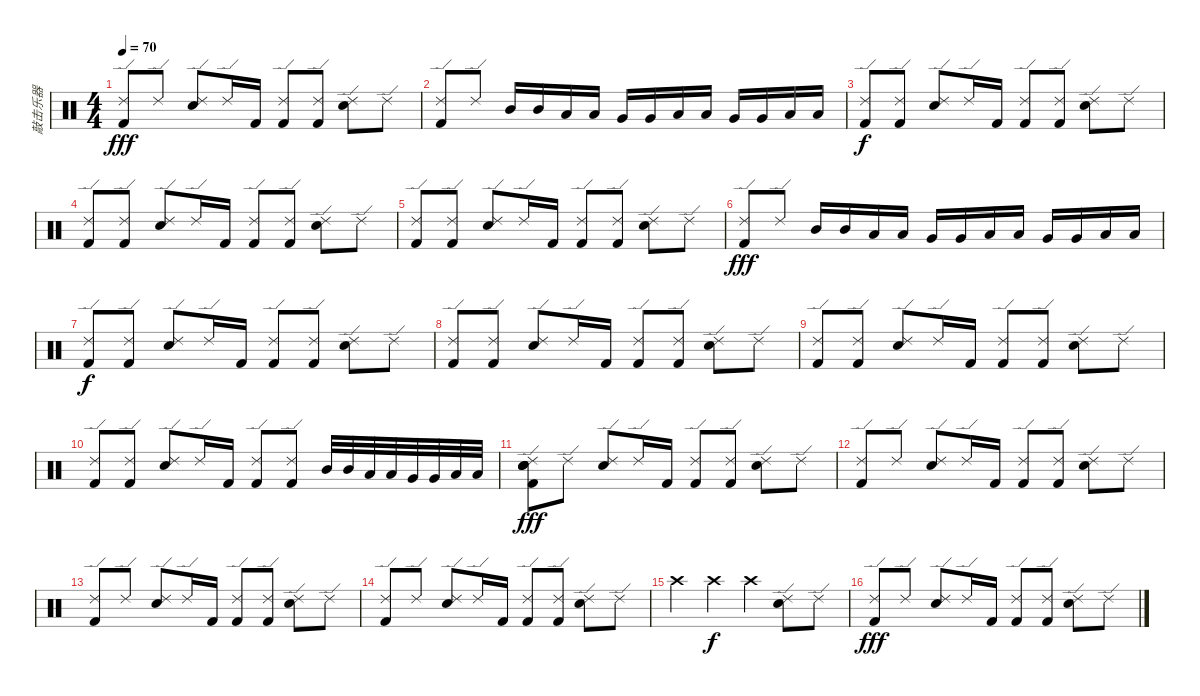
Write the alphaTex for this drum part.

\track ("敲击乐器" "敲击乐器") {instrument percussion}
\staff {score}
\articulation defaults
\ts (4 4)
\tempo 70
\clef neutral
\ks c
("Ride (edge) 2" "Kick (hit) 2").8{dy fff} "Ride (edge) 2".8 ("Ride (edge) 2" "Snare (hit) 2").8 "Ride (edge) 2".16 "Kick (hit) 2".16 ("Ride (edge) 2" "Kick (hit) 2").8 ("Ride (edge) 2" "Kick (hit) 2").8 ("Ride (edge) 2" "Snare (hit) 2").8 "Ride (edge) 2".8 |
("Ride (edge) 2" "Kick (hit) 2").8 "Ride (edge) 2".8 "Mid Tom (hit)".16 "Mid Tom (hit)".16 "Low Tom (hit)".16 "Low Tom (hit)".16 "Very Low Tom (hit)".16 "Very Low Tom (hit)".16 "Low Tom (hit)".16 "Low Tom (hit)".16 "Very Low Tom (hit)".16 "Very Low Tom (hit)".16 "Low Floor Tom (hit)".16 "Low Floor Tom (hit)".16 |
("Ride (edge) 2" "Kick (hit) 2").8{dy f} ("Ride (edge) 2" "Kick (hit) 2").8 ("Ride (edge) 2" "Snare (hit) 2").8 "Ride (edge) 2".16 "Kick (hit) 2".16 ("Ride (edge) 2" "Kick (hit) 2").8 ("Ride (edge) 2" "Kick (hit) 2").8 ("Ride (edge) 2" "Snare (hit) 2").8 "Ride (edge) 2".8 |
("Ride (edge) 2" "Kick (hit) 2").8 ("Ride (edge) 2" "Kick (hit) 2").8 ("Ride (edge) 2" "Snare (hit) 2").8 "Ride (edge) 2".16 "Kick (hit) 2".16 ("Ride (edge) 2" "Kick (hit) 2").8 ("Ride (edge) 2" "Kick (hit) 2").8 ("Ride (edge) 2" "Snare (hit) 2").8 "Ride (edge) 2".8 |
("Ride (edge) 2" "Kick (hit) 2").8 ("Ride (edge) 2" "Kick (hit) 2").8 ("Ride (edge) 2" "Snare (hit) 2").8 "Ride (edge) 2".16 "Kick (hit) 2".16 ("Ride (edge) 2" "Kick (hit) 2").8 ("Ride (edge) 2" "Kick (hit) 2").8 ("Ride (edge) 2" "Snare (hit) 2").8 "Ride (edge) 2".8 |
("Ride (edge) 2" "Kick (hit) 2").8{dy fff} "Ride (edge) 2".8 "Mid Tom (hit)".16 "Mid Tom (hit)".16 "Low Tom (hit)".16 "Low Tom (hit)".16 "Very Low Tom (hit)".16 "Very Low Tom (hit)".16 "Low Tom (hit)".16 "Low Tom (hit)".16 "Very Low Tom (hit)".16 "Very Low Tom (hit)".16 "Low Floor Tom (hit)".16 "Low Floor Tom (hit)".16 |
("Ride (edge) 2" "Kick (hit) 2").8{dy f} ("Ride (edge) 2" "Kick (hit) 2").8 ("Ride (edge) 2" "Snare (hit) 2").8 "Ride (edge) 2".16 "Kick (hit) 2".16 ("Ride (edge) 2" "Kick (hit) 2").8 ("Ride (edge) 2" "Kick (hit) 2").8 ("Ride (edge) 2" "Snare (hit) 2").8 "Ride (edge) 2".8 |
("Ride (edge) 2" "Kick (hit) 2").8 ("Ride (edge) 2" "Kick (hit) 2").8 ("Ride (edge) 2" "Snare (hit) 2").8 "Ride (edge) 2".16 "Kick (hit) 2".16 ("Ride (edge) 2" "Kick (hit) 2").8 ("Ride (edge) 2" "Kick (hit) 2").8 ("Ride (edge) 2" "Snare (hit) 2").8 "Ride (edge) 2".8 |
("Ride (edge) 2" "Kick (hit) 2").8 ("Ride (edge) 2" "Kick (hit) 2").8 ("Ride (edge) 2" "Snare (hit) 2").8 "Ride (edge) 2".16 "Kick (hit) 2".16 ("Ride (edge) 2" "Kick (hit) 2").8 ("Ride (edge) 2" "Kick (hit) 2").8 ("Ride (edge) 2" "Snare (hit) 2").8 "Ride (edge) 2".8 |
("Ride (edge) 2" "Kick (hit) 2").8 ("Ride (edge) 2" "Kick (hit) 2").8 ("Ride (edge) 2" "Snare (hit) 2").8 "Ride (edge) 2".16 "Kick (hit) 2".16 ("Ride (edge) 2" "Kick (hit) 2").8 ("Ride (edge) 2" "Kick (hit) 2").8 "Mid Tom (hit)".32 "Mid Tom (hit)".32 "Low Tom (hit)".32 "Low Tom (hit)".32 "Very Low Tom (hit)".32 "Very Low Tom (hit)".32 "Low Floor Tom (hit)".32 "Low Floor Tom (hit)".32 |
("Ride (edge) 2" "Snare (hit)" "Snare (hit)" "Snare (hit)" "Kick (hit) 2").8{dy fff} "Ride (edge) 2".8 ("Ride (edge) 2" "Snare (hit) 2").8 "Ride (edge) 2".16 "Kick (hit) 2".16 ("Ride (edge) 2" "Kick (hit) 2").8 ("Ride (edge) 2" "Kick (hit) 2").8 ("Ride (edge) 2" "Snare (hit) 2").8 "Ride (edge) 2".8 |
("Ride (edge) 2" "Kick (hit) 2").8 "Ride (edge) 2".8 ("Ride (edge) 2" "Snare (hit) 2").8 "Ride (edge) 2".16 "Kick (hit) 2".16 ("Ride (edge) 2" "Kick (hit) 2").8 ("Ride (edge) 2" "Kick (hit) 2").8 ("Ride (edge) 2" "Snare (hit) 2").8 "Ride (edge) 2".8 |
("Ride (edge) 2" "Kick (hit) 2").8 "Ride (edge) 2".8 ("Ride (edge) 2" "Snare (hit) 2").8 "Ride (edge) 2".16 "Kick (hit) 2".16 ("Ride (edge) 2" "Kick (hit) 2").8 ("Ride (edge) 2" "Kick (hit) 2").8 ("Ride (edge) 2" "Snare (hit) 2").8 "Ride (edge) 2".8 |
("Ride (edge) 2" "Kick (hit) 2").8 "Ride (edge) 2".8 ("Ride (edge) 2" "Snare (hit) 2").8 "Ride (edge) 2".16 "Kick (hit) 2".16 ("Ride (edge) 2" "Kick (hit) 2").8 ("Ride (edge) 2" "Kick (hit) 2").8 ("Ride (edge) 2" "Snare (hit) 2").8 "Ride (edge) 2".8 |
"Crash high (hit)".4 "Crash high (hit)".4{dy f} "Crash high (hit)".4 ("Ride (edge) 2" "Snare (hit) 2").8 "Ride (edge) 2".8 |
("Ride (edge) 2" "Kick (hit) 2").8{dy fff} "Ride (edge) 2".8 ("Ride (edge) 2" "Snare (hit) 2").8 "Ride (edge) 2".16 "Kick (hit) 2".16 ("Ride (edge) 2" "Kick (hit) 2").8 ("Ride (edge) 2" "Kick (hit) 2").8 ("Ride (edge) 2" "Snare (hit) 2").8 "Ride (edge) 2".8
